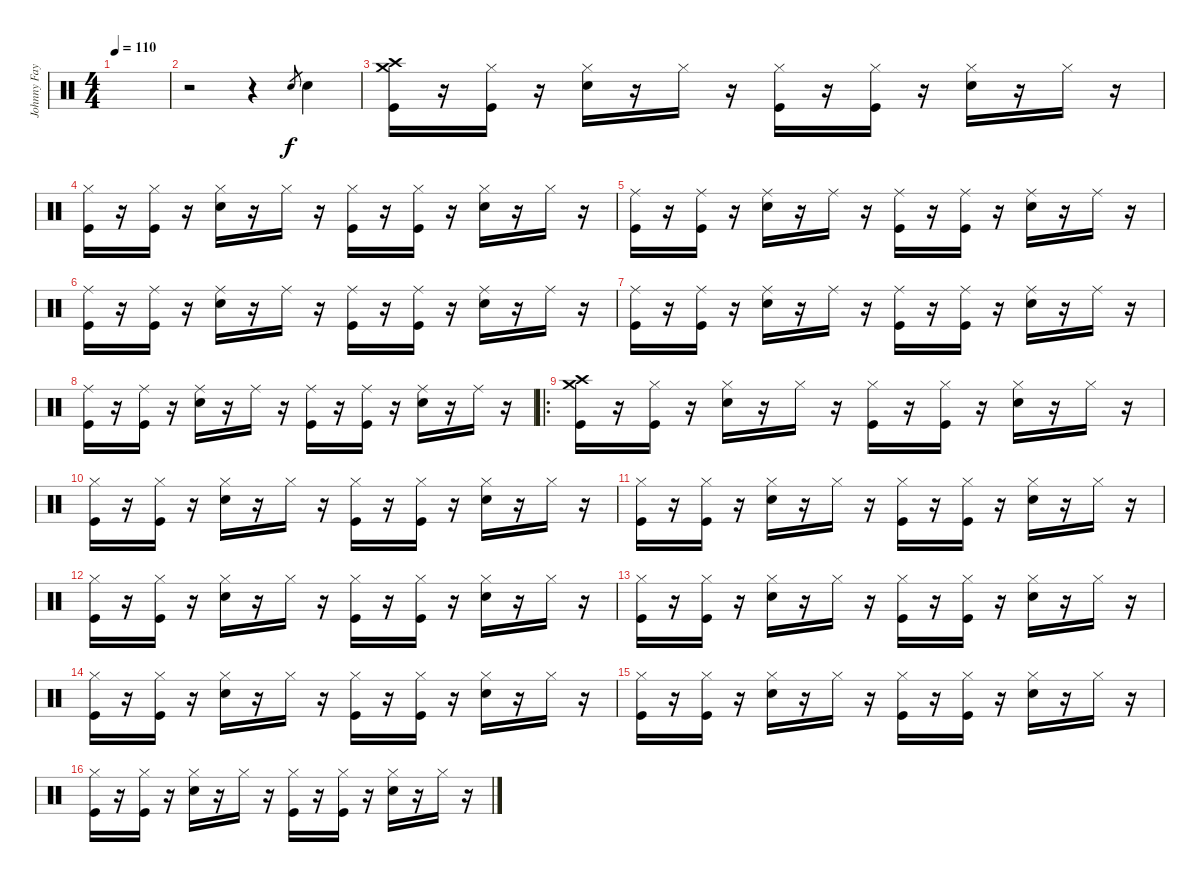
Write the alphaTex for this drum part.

\track ("Johnny Fay" "Johnny Fay") {instrument percussion}
\staff {score}
\articulation defaults
\ts (4 4)
\tempo 110
\clef neutral
\ks c
|
r.2 r.4 "Snare (hit) 2".8{gr} "Snare (hit) 2".4 |
("Crash medium (hit)" "Kick (hit)" "Crash high (hit)").16 r.16 ("Kick (hit)" "Hi-Hat (closed)").16 r.16 ("Snare (hit) 2" "Hi-Hat (closed)").16 r.16 "Hi-Hat (closed)".16 r.16 ("Kick (hit)" "Hi-Hat (closed)").16 r.16 ("Kick (hit)" "Hi-Hat (closed)").16 r.16 ("Snare (hit) 2" "Hi-Hat (closed)").16 r.16 "Hi-Hat (closed)".16 r.16 |
("Kick (hit)" "Hi-Hat (closed)").16 r.16 ("Kick (hit)" "Hi-Hat (closed)").16 r.16 ("Snare (hit) 2" "Hi-Hat (closed)").16 r.16 "Hi-Hat (closed)".16 r.16 ("Kick (hit)" "Hi-Hat (closed)").16 r.16 ("Kick (hit)" "Hi-Hat (closed)").16 r.16 ("Snare (hit) 2" "Hi-Hat (closed)").16 r.16 "Hi-Hat (closed)".16 r.16 |
("Kick (hit)" "Ride (middle)").16 r.16 ("Kick (hit)" "Ride (middle)").16 r.16 ("Snare (hit) 2" "Ride (middle)").16 r.16 "Ride (middle)".16 r.16 ("Kick (hit)" "Ride (middle)").16 r.16 ("Kick (hit)" "Ride (middle)").16 r.16 ("Snare (hit) 2" "Ride (middle)").16 r.16 "Ride (middle)".16 r.16 |
("Kick (hit)" "Ride (middle)").16 r.16 ("Kick (hit)" "Ride (middle)").16 r.16 ("Snare (hit) 2" "Ride (middle)").16 r.16 "Ride (middle)".16 r.16 ("Kick (hit)" "Ride (middle)").16 r.16 ("Kick (hit)" "Ride (middle)").16 r.16 ("Snare (hit) 2" "Ride (middle)").16 r.16 "Ride (middle)".16 r.16 |
("Kick (hit)" "Ride (middle)").16 r.16 ("Kick (hit)" "Ride (middle)").16 r.16 ("Snare (hit) 2" "Ride (middle)").16 r.16 "Ride (middle)".16 r.16 ("Kick (hit)" "Ride (middle)").16 r.16 ("Kick (hit)" "Ride (middle)").16 r.16 ("Snare (hit) 2" "Ride (middle)").16 r.16 "Ride (middle)".16 r.16 |
("Kick (hit)" "Ride (middle)").16 r.16 ("Kick (hit)" "Ride (middle)").16 r.16 ("Snare (hit) 2" "Ride (middle)").16 r.16 "Ride (middle)".16 r.16 ("Kick (hit)" "Ride (middle)").16 r.16 ("Kick (hit)" "Ride (middle)").16 r.16 ("Snare (hit) 2" "Ride (middle)").16 r.16 "Ride (middle)".16 r.16 |
\ro
("Crash high (hit)" "Kick (hit)" "Crash medium (hit)").16 r.16 ("Kick (hit)" "Hi-Hat (closed)").16 r.16 ("Snare (hit) 2" "Hi-Hat (closed)").16 r.16 "Hi-Hat (closed)".16 r.16 ("Kick (hit)" "Hi-Hat (closed)").16 r.16 ("Kick (hit)" "Hi-Hat (closed)").16 r.16 ("Snare (hit) 2" "Hi-Hat (closed)").16 r.16 "Hi-Hat (closed)".16 r.16 |
("Kick (hit)" "Hi-Hat (closed)").16 r.16 ("Kick (hit)" "Hi-Hat (closed)").16 r.16 ("Snare (hit) 2" "Hi-Hat (closed)").16 r.16 "Hi-Hat (closed)".16 r.16 ("Kick (hit)" "Hi-Hat (closed)").16 r.16 ("Kick (hit)" "Hi-Hat (closed)").16 r.16 ("Snare (hit) 2" "Hi-Hat (closed)").16 r.16 "Hi-Hat (closed)".16 r.16 |
("Kick (hit)" "Hi-Hat (closed)").16 r.16 ("Kick (hit)" "Hi-Hat (closed)").16 r.16 ("Snare (hit) 2" "Hi-Hat (closed)").16 r.16 "Hi-Hat (closed)".16 r.16 ("Kick (hit)" "Hi-Hat (closed)").16 r.16 ("Kick (hit)" "Hi-Hat (closed)").16 r.16 ("Snare (hit) 2" "Hi-Hat (closed)").16 r.16 "Hi-Hat (closed)".16 r.16 |
("Kick (hit)" "Hi-Hat (closed)").16 r.16 ("Kick (hit)" "Hi-Hat (closed)").16 r.16 ("Snare (hit) 2" "Hi-Hat (closed)").16 r.16 "Hi-Hat (closed)".16 r.16 ("Kick (hit)" "Hi-Hat (closed)").16 r.16 ("Kick (hit)" "Hi-Hat (closed)").16 r.16 ("Snare (hit) 2" "Hi-Hat (closed)").16 r.16 "Hi-Hat (closed)".16 r.16 |
("Kick (hit)" "Hi-Hat (closed)").16 r.16 ("Kick (hit)" "Hi-Hat (closed)").16 r.16 ("Snare (hit) 2" "Hi-Hat (closed)").16 r.16 "Hi-Hat (closed)".16 r.16 ("Kick (hit)" "Hi-Hat (closed)").16 r.16 ("Kick (hit)" "Hi-Hat (closed)").16 r.16 ("Snare (hit) 2" "Hi-Hat (closed)").16 r.16 "Hi-Hat (closed)".16 r.16 |
("Kick (hit)" "Hi-Hat (closed)").16 r.16 ("Kick (hit)" "Hi-Hat (closed)").16 r.16 ("Snare (hit) 2" "Hi-Hat (closed)").16 r.16 "Hi-Hat (closed)".16 r.16 ("Kick (hit)" "Hi-Hat (closed)").16 r.16 ("Kick (hit)" "Hi-Hat (closed)").16 r.16 ("Snare (hit) 2" "Hi-Hat (closed)").16 r.16 "Hi-Hat (closed)".16 r.16 |
("Kick (hit)" "Hi-Hat (closed)").16 r.16 ("Kick (hit)" "Hi-Hat (closed)").16 r.16 ("Snare (hit) 2" "Hi-Hat (closed)").16 r.16 "Hi-Hat (closed)".16 r.16 ("Kick (hit)" "Hi-Hat (closed)").16 r.16 ("Kick (hit)" "Hi-Hat (closed)").16 r.16 ("Snare (hit) 2" "Hi-Hat (closed)").16 r.16 "Hi-Hat (closed)".16 r.16 |
("Kick (hit)" "Hi-Hat (closed)").16 r.16 ("Kick (hit)" "Hi-Hat (closed)").16 r.16 ("Snare (hit) 2" "Hi-Hat (closed)").16 r.16 "Hi-Hat (closed)".16 r.16 ("Kick (hit)" "Hi-Hat (closed)").16 r.16 ("Kick (hit)" "Hi-Hat (closed)").16 r.16 ("Snare (hit) 2" "Hi-Hat (closed)").16 r.16 "Hi-Hat (closed)".16 r.16
